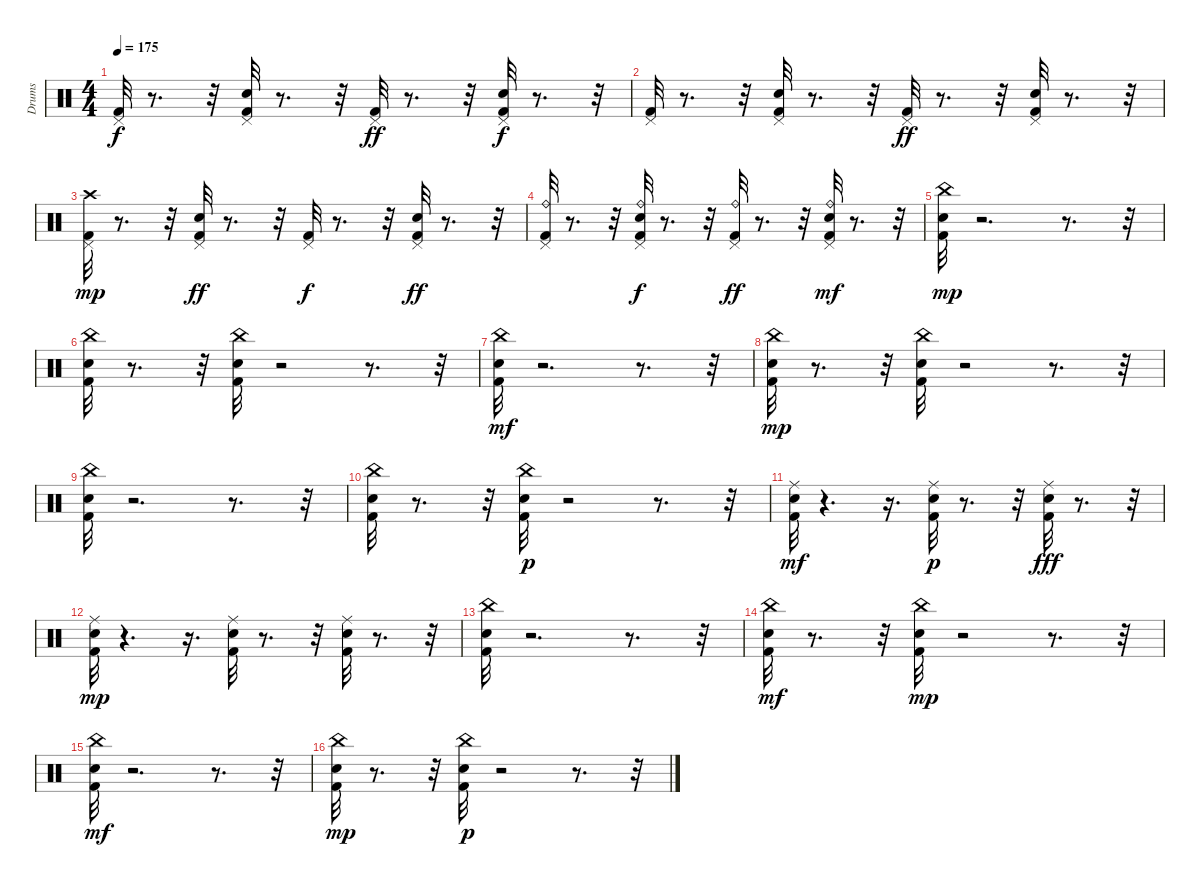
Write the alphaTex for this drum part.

\track ("Drums" "Drums") {instrument percussion}
\staff {score}
\articulation defaults
\ts (4 4)
\tempo 175
\clef neutral
\ks c
("Pedal Hi-Hat (hit)" "Kick (hit) 2").32{dy f} r.8{d} r.32 ("Kick (hit) 2" "Snare (hit) 2" "Pedal Hi-Hat (hit)").32 r.8{d} r.32 ("Kick (hit) 2" "Pedal Hi-Hat (hit)").32{dy ff} r.8{d} r.32 ("Pedal Hi-Hat (hit)" "Snare (hit) 2" "Kick (hit) 2").32{dy f} r.8{d} r.32 |
("Pedal Hi-Hat (hit)" "Kick (hit) 2").32 r.8{d} r.32 ("Kick (hit) 2" "Snare (hit) 2" "Pedal Hi-Hat (hit)").32 r.8{d} r.32 ("Pedal Hi-Hat (hit)" "Kick (hit) 2").32{dy ff} r.8{d} r.32 ("Pedal Hi-Hat (hit)" "Kick (hit) 2" "Snare (hit) 2").32 r.8{d} r.32 |
("Crash high (hit)" "Pedal Hi-Hat (hit)" "Kick (hit) 2").32{dy mp} r.8{d} r.32 ("Kick (hit) 2" "Snare (hit) 2" "Pedal Hi-Hat (hit)").32{dy ff} r.8{d} r.32 ("Kick (hit) 2" "Pedal Hi-Hat (hit)").32{dy f} r.8{d} r.32 ("Snare (hit) 2" "Kick (hit) 2" "Pedal Hi-Hat (hit)").32{dy ff} r.8{d} r.32 |
("Ride (bell)" "Pedal Hi-Hat (hit)" "Kick (hit) 2").32 r.8{d} r.32 ("Ride (bell)" "Kick (hit) 2" "Snare (hit) 2" "Pedal Hi-Hat (hit)").32{dy f} r.8{d} r.32 ("Pedal Hi-Hat (hit)" "Ride (bell)" "Kick (hit) 2").32{dy ff} r.8{d} r.32 ("Pedal Hi-Hat (hit)" "Snare (hit) 2" "Kick (hit) 2" "Ride (bell)").32{dy mf} r.8{d} r.32 |
("Kick (hit) 2" "Snare (hit) 2" "China (hit)").32{dy mp} r.2{d} r.8{d} r.32 |
("Kick (hit) 2" "China (hit)" "Snare (hit) 2").32 r.8{d} r.32 ("Snare (hit) 2" "China (hit)" "Kick (hit) 2").32 r.2 r.8{d} r.32 |
("Snare (hit) 2" "Kick (hit) 2" "China (hit)").32{dy mf} r.2{d} r.8{d} r.32 |
("China (hit)" "Snare (hit) 2" "Kick (hit) 2").32{dy mp} r.8{d} r.32 ("China (hit)" "Snare (hit) 2" "Kick (hit) 2").32 r.2 r.8{d} r.32 |
("China (hit)" "Kick (hit) 2" "Snare (hit) 2").32 r.2{d} r.8{d} r.32 |
("China (hit)" "Snare (hit) 2" "Kick (hit) 2").32 r.8{d} r.32 ("Snare (hit) 2" "China (hit)" "Kick (hit) 2").32{dy p} r.2 r.8{d} r.32 |
("Ride (middle)" "Kick (hit) 2" "Snare (hit) 2").32{dy mf} r.4{d} r.16{d} ("Ride (middle)" "Kick (hit) 2" "Snare (hit) 2").32{dy p} r.8{d} r.32 ("Snare (hit) 2" "Kick (hit) 2" "Ride (middle)").32{dy fff} r.8{d} r.32 |
("Ride (middle)" "Snare (hit) 2" "Kick (hit) 2").32{dy mp} r.4{d} r.16{d} ("Ride (middle)" "Snare (hit) 2" "Kick (hit) 2").32 r.8{d} r.32 ("Kick (hit) 2" "Ride (middle)" "Snare (hit) 2").32 r.8{d} r.32 |
("China (hit)" "Kick (hit) 2" "Snare (hit) 2").32 r.2{d} r.8{d} r.32 |
("Kick (hit) 2" "China (hit)" "Snare (hit) 2").32{dy mf} r.8{d} r.32 ("Kick (hit) 2" "Snare (hit) 2" "China (hit)").32{dy mp} r.2 r.8{d} r.32 |
("Snare (hit) 2" "China (hit)" "Kick (hit) 2").32{dy mf} r.2{d} r.8{d} r.32 |
("Kick (hit) 2" "Snare (hit) 2" "China (hit)").32{dy mp} r.8{d} r.32 ("Snare (hit) 2" "Kick (hit) 2" "China (hit)").32{dy p} r.2 r.8{d} r.32
